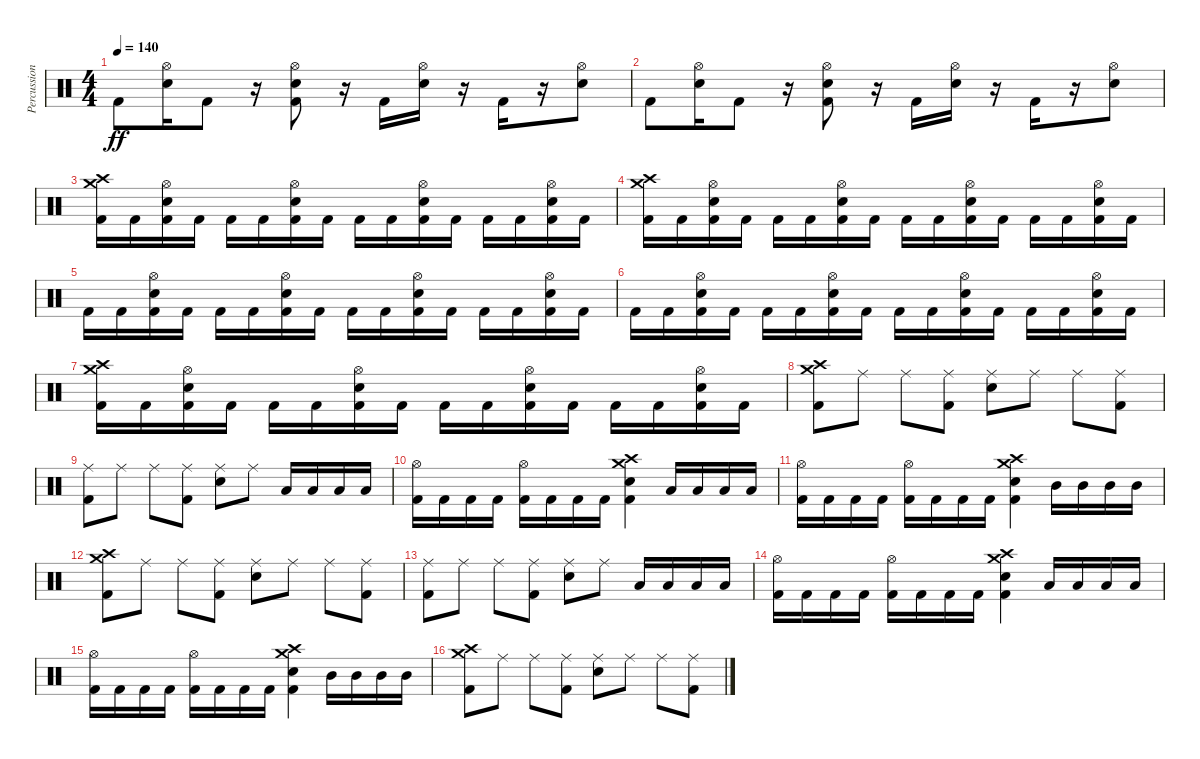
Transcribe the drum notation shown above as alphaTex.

\track ("Percussion" "Percussion") {instrument percussion}
\staff {score}
\articulation defaults
\ts (4 4)
\tempo 140
\clef neutral
\ks c "Kick (hit) 2".8{dy ff}
("Electric Snare (hit)" "Hi-Hat (open)").16 "Kick (hit) 2".8 r.16 ("Kick (hit) 2" "Electric Snare (hit)" "Hi-Hat (open)").8 r.16 "Kick (hit) 2".16 ("Electric Snare (hit)" "Hi-Hat (open)").16 r.16 "Kick (hit) 2".16 r.16 ("Electric Snare (hit)" "Hi-Hat (open)").8 |
"Kick (hit) 2".8 ("Electric Snare (hit)" "Hi-Hat (open)").16 "Kick (hit) 2".8 r.16 ("Kick (hit) 2" "Electric Snare (hit)" "Hi-Hat (open)").8 r.16 "Kick (hit) 2".16 ("Electric Snare (hit)" "Hi-Hat (open)").16 r.16 "Kick (hit) 2".16 r.16 ("Electric Snare (hit)" "Hi-Hat (open)").8 |
("Kick (hit) 2" "Crash medium (hit)" "Crash high (hit)").16 "Kick (hit) 2".16 ("Kick (hit) 2" "Electric Snare (hit)" "Hi-Hat (open)").16 "Kick (hit) 2".16 "Kick (hit) 2".16 "Kick (hit) 2".16 ("Kick (hit) 2" "Electric Snare (hit)" "Hi-Hat (open)").16 "Kick (hit) 2".16 "Kick (hit) 2".16 "Kick (hit) 2".16 ("Kick (hit) 2" "Electric Snare (hit)" "Hi-Hat (open)").16 "Kick (hit) 2".16 "Kick (hit) 2".16 "Kick (hit) 2".16 ("Kick (hit) 2" "Electric Snare (hit)" "Hi-Hat (open)").16 "Kick (hit) 2".16 |
("Kick (hit) 2" "Crash medium (hit)" "Crash high (hit)").16 "Kick (hit) 2".16 ("Kick (hit) 2" "Electric Snare (hit)" "Hi-Hat (open)").16 "Kick (hit) 2".16 "Kick (hit) 2".16 "Kick (hit) 2".16 ("Kick (hit) 2" "Electric Snare (hit)" "Hi-Hat (open)").16 "Kick (hit) 2".16 "Kick (hit) 2".16 "Kick (hit) 2".16 ("Kick (hit) 2" "Electric Snare (hit)" "Hi-Hat (open)").16 "Kick (hit) 2".16 "Kick (hit) 2".16 "Kick (hit) 2".16 ("Kick (hit) 2" "Electric Snare (hit)" "Hi-Hat (open)").16 "Kick (hit) 2".16 |
"Kick (hit) 2".16 "Kick (hit) 2".16 ("Kick (hit) 2" "Electric Snare (hit)" "Hi-Hat (open)").16 "Kick (hit) 2".16 "Kick (hit) 2".16 "Kick (hit) 2".16 ("Kick (hit) 2" "Electric Snare (hit)" "Hi-Hat (open)").16 "Kick (hit) 2".16 "Kick (hit) 2".16 "Kick (hit) 2".16 ("Kick (hit) 2" "Electric Snare (hit)" "Hi-Hat (open)").16 "Kick (hit) 2".16 "Kick (hit) 2".16 "Kick (hit) 2".16 ("Kick (hit) 2" "Electric Snare (hit)" "Hi-Hat (open)").16 "Kick (hit) 2".16 |
"Kick (hit) 2".16 "Kick (hit) 2".16 ("Kick (hit) 2" "Electric Snare (hit)" "Hi-Hat (open)").16 "Kick (hit) 2".16 "Kick (hit) 2".16 "Kick (hit) 2".16 ("Kick (hit) 2" "Electric Snare (hit)" "Hi-Hat (open)").16 "Kick (hit) 2".16 "Kick (hit) 2".16 "Kick (hit) 2".16 ("Kick (hit) 2" "Electric Snare (hit)" "Hi-Hat (open)").16 "Kick (hit) 2".16 "Kick (hit) 2".16 "Kick (hit) 2".16 ("Kick (hit) 2" "Electric Snare (hit)" "Hi-Hat (open)").16 "Kick (hit) 2".16 |
("Kick (hit) 2" "Crash medium (hit)" "Crash high (hit)").16 "Kick (hit) 2".16 ("Kick (hit) 2" "Electric Snare (hit)" "Hi-Hat (open)").16 "Kick (hit) 2".16 "Kick (hit) 2".16 "Kick (hit) 2".16 ("Kick (hit) 2" "Electric Snare (hit)" "Hi-Hat (open)").16 "Kick (hit) 2".16 "Kick (hit) 2".16 "Kick (hit) 2".16 ("Kick (hit) 2" "Electric Snare (hit)" "Hi-Hat (open)").16 "Kick (hit) 2".16 "Kick (hit) 2".16 "Kick (hit) 2".16 ("Kick (hit) 2" "Electric Snare (hit)" "Hi-Hat (open)").16 "Kick (hit) 2".16 |
("Kick (hit) 2" "Crash medium (hit)" "Crash high (hit)").8 "Ride (middle)".8 "Ride (middle)".8 ("Kick (hit) 2" "Ride (middle)").8 ("Electric Snare (hit)" "Ride (middle)").8 "Ride (middle)".8 "Ride (middle)".8 ("Kick (hit) 2" "Ride (middle)").8 |
("Kick (hit) 2" "Ride (middle)").8 "Ride (middle)".8 "Ride (middle)".8 ("Kick (hit) 2" "Ride (middle)").8 ("Electric Snare (hit)" "Ride (middle)").8 "Ride (middle)".8 "Low Floor Tom (hit)".16 "Low Floor Tom (hit)".16 "Low Floor Tom (hit)".16 "Low Floor Tom (hit)".16 |
("Kick (hit) 2" "Hi-Hat (open)").16 "Kick (hit) 2".16 "Kick (hit) 2".16 "Kick (hit) 2".16 ("Kick (hit) 2" "Hi-Hat (open)").16 "Kick (hit) 2".16 "Kick (hit) 2".16 "Kick (hit) 2".16 ("Kick (hit) 2" "Electric Snare (hit)" "Crash medium (hit)" "Crash high (hit)").4 "Low Tom (hit)".16 "Low Tom (hit)".16 "Low Tom (hit)".16 "Low Tom (hit)".16 |
("Kick (hit) 2" "Hi-Hat (open)").16 "Kick (hit) 2".16 "Kick (hit) 2".16 "Kick (hit) 2".16 ("Kick (hit) 2" "Hi-Hat (open)").16 "Kick (hit) 2".16 "Kick (hit) 2".16 "Kick (hit) 2".16 ("Kick (hit) 2" "Electric Snare (hit)" "Crash medium (hit)" "Crash high (hit)").4 "Mid Tom (hit)".16 "Mid Tom (hit)".16 "Mid Tom (hit)".16 "Mid Tom (hit)".16 |
("Kick (hit) 2" "Crash medium (hit)" "Crash high (hit)").8 "Ride (middle)".8 "Ride (middle)".8 ("Kick (hit) 2" "Ride (middle)").8 ("Electric Snare (hit)" "Ride (middle)").8 "Ride (middle)".8 "Ride (middle)".8 ("Kick (hit) 2" "Ride (middle)").8 |
("Kick (hit) 2" "Ride (middle)").8 "Ride (middle)".8 "Ride (middle)".8 ("Kick (hit) 2" "Ride (middle)").8 ("Electric Snare (hit)" "Ride (middle)").8 "Ride (middle)".8 "Low Floor Tom (hit)".16 "Low Floor Tom (hit)".16 "Low Floor Tom (hit)".16 "Low Floor Tom (hit)".16 |
("Kick (hit) 2" "Hi-Hat (open)").16 "Kick (hit) 2".16 "Kick (hit) 2".16 "Kick (hit) 2".16 ("Kick (hit) 2" "Hi-Hat (open)").16 "Kick (hit) 2".16 "Kick (hit) 2".16 "Kick (hit) 2".16 ("Kick (hit) 2" "Electric Snare (hit)" "Crash medium (hit)" "Crash high (hit)").4 "Low Tom (hit)".16 "Low Tom (hit)".16 "Low Tom (hit)".16 "Low Tom (hit)".16 |
("Kick (hit) 2" "Hi-Hat (open)").16 "Kick (hit) 2".16 "Kick (hit) 2".16 "Kick (hit) 2".16 ("Kick (hit) 2" "Hi-Hat (open)").16 "Kick (hit) 2".16 "Kick (hit) 2".16 "Kick (hit) 2".16 ("Kick (hit) 2" "Electric Snare (hit)" "Crash medium (hit)" "Crash high (hit)").4 "Mid Tom (hit)".16 "Mid Tom (hit)".16 "Mid Tom (hit)".16 "Mid Tom (hit)".16 |
("Kick (hit) 2" "Crash medium (hit)" "Crash high (hit)").8 "Ride (middle)".8 "Ride (middle)".8 ("Kick (hit) 2" "Ride (middle)").8 ("Electric Snare (hit)" "Ride (middle)").8 "Ride (middle)".8 "Ride (middle)".8 ("Kick (hit) 2" "Ride (middle)").8
